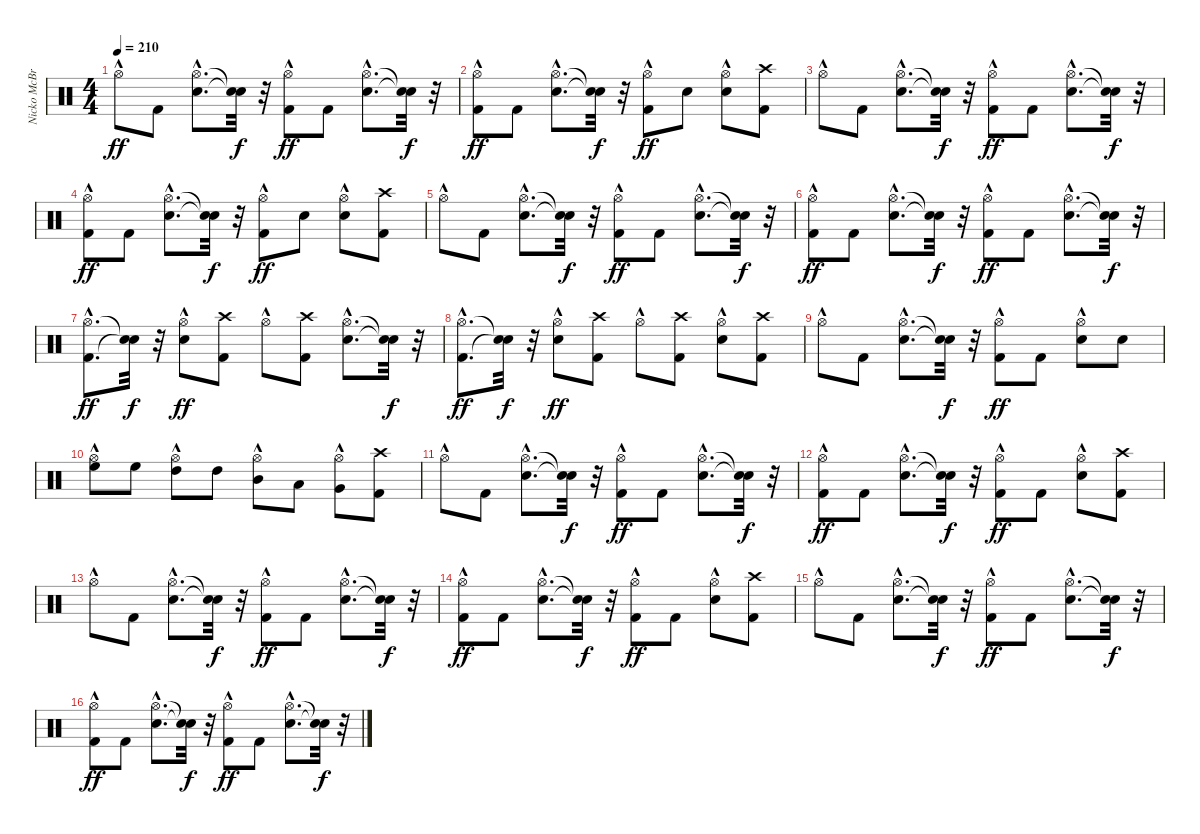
\track ("Nicko McBrain" "Nicko McBr") {instrument percussion}
\staff {score}
\articulation defaults
\ts (4 4)
\tempo 210
\clef neutral
\ks c "Hi-Hat (open)"{hac}.8{dy ff} "Kick (hit) 2".8
("Snare (hit) 2"{hac} "Hi-Hat (open)"{hac}).8{d} ("Snare (hit)"{t} "Snare (hit)"{t}).32{dy f} r.32 ("Kick (hit) 2" "Hi-Hat (open)"{hac}).8{dy ff} "Kick (hit) 2".8 ("Snare (hit) 2"{hac} "Hi-Hat (open)"{hac}).8{d} ("Snare (hit)"{t} "Snare (hit)"{t}).32{dy f} r.32 |
("Kick (hit) 2" "Hi-Hat (open)"{hac}).8{dy ff} "Kick (hit) 2".8 ("Snare (hit) 2"{hac} "Hi-Hat (open)"{hac}).8{d} ("Snare (hit)"{t} "Snare (hit)"{t}).32{dy f} r.32 ("Kick (hit) 2" "Hi-Hat (open)"{hac}).8{dy ff} "Snare (hit) 2".8 ("Snare (hit) 2" "Hi-Hat (open)"{hac}).8 ("Kick (hit) 2" "Crash high (hit)").8 |
"Hi-Hat (open)"{hac}.8 "Kick (hit) 2".8 ("Snare (hit) 2"{hac} "Hi-Hat (open)"{hac}).8{d} ("Snare (hit)"{t} "Snare (hit)"{t}).32{dy f} r.32 ("Kick (hit) 2" "Hi-Hat (open)"{hac}).8{dy ff} "Kick (hit) 2".8 ("Snare (hit) 2"{hac} "Hi-Hat (open)"{hac}).8{d} ("Snare (hit)"{t} "Snare (hit)"{t}).32{dy f} r.32 |
("Kick (hit) 2" "Hi-Hat (open)"{hac}).8{dy ff} "Kick (hit) 2".8 ("Snare (hit) 2"{hac} "Hi-Hat (open)"{hac}).8{d} ("Snare (hit)"{t} "Snare (hit)"{t}).32{dy f} r.32 ("Kick (hit) 2" "Hi-Hat (open)"{hac}).8{dy ff} "Snare (hit) 2".8 ("Snare (hit) 2" "Hi-Hat (open)"{hac}).8 ("Kick (hit) 2" "Crash high (hit)").8 |
"Hi-Hat (open)"{hac}.8 "Kick (hit) 2".8 ("Snare (hit) 2"{hac} "Hi-Hat (open)"{hac}).8{d} ("Snare (hit)"{t} "Snare (hit)"{t}).32{dy f} r.32 ("Kick (hit) 2" "Hi-Hat (open)"{hac}).8{dy ff} "Kick (hit) 2".8 ("Snare (hit) 2"{hac} "Hi-Hat (open)"{hac}).8{d} ("Snare (hit)"{t} "Snare (hit)"{t}).32{dy f} r.32 |
("Kick (hit) 2" "Hi-Hat (open)"{hac}).8{dy ff} "Kick (hit) 2".8 ("Snare (hit) 2"{hac} "Hi-Hat (open)"{hac}).8{d} ("Snare (hit)"{t} "Snare (hit)"{t}).32{dy f} r.32 ("Kick (hit) 2" "Hi-Hat (open)"{hac}).8{dy ff} "Kick (hit) 2".8 ("Snare (hit) 2"{hac} "Hi-Hat (open)"{hac}).8{d} ("Snare (hit)"{t} "Snare (hit)"{t}).32{dy f} r.32 |
("Kick (hit) 2"{hac} "Hi-Hat (open)"{hac}).8{d dy ff} ("Snare (hit)"{t} "Snare (hit)"{t}).32{dy f} r.32 ("Snare (hit) 2" "Hi-Hat (open)"{hac}).8{dy ff} ("Kick (hit) 2" "Crash high (hit)").8 "Hi-Hat (open)"{hac}.8 ("Kick (hit) 2" "Crash high (hit)").8 ("Snare (hit) 2"{hac} "Hi-Hat (open)"{hac}).8{d} ("Snare (hit)"{t} "Snare (hit)"{t}).32{dy f} r.32 |
("Kick (hit) 2"{hac} "Hi-Hat (open)"{hac}).8{d dy ff} ("Snare (hit)"{t} "Snare (hit)"{t}).32{dy f} r.32 ("Snare (hit) 2" "Hi-Hat (open)"{hac}).8{dy ff} ("Kick (hit) 2" "Crash high (hit)").8 "Hi-Hat (open)"{hac}.8 ("Kick (hit) 2" "Crash high (hit)").8 ("Snare (hit) 2" "Hi-Hat (open)"{hac}).8 ("Kick (hit) 2" "Crash high (hit)").8 |
"Hi-Hat (open)"{hac}.8 "Kick (hit) 2".8 ("Snare (hit) 2"{hac} "Hi-Hat (open)"{hac}).8{d} ("Snare (hit)"{t} "Snare (hit)"{t}).32{dy f} r.32 ("Kick (hit) 2" "Hi-Hat (open)"{hac}).8{dy ff} "Kick (hit) 2".8 ("Snare (hit) 2" "Hi-Hat (open)"{hac}).8 "Snare (hit) 2".8 |
("Hi-Hat (open)"{hac} "High Floor Tom (hit)").8 "High Floor Tom (hit)".8 ("Hi-Hat (open)"{hac} "High Tom (hit)").8 "High Tom (hit)".8 ("Hi-Hat (open)"{hac} "Mid Tom (hit)").8 "Low Tom (hit)".8 ("Very Low Tom (hit)" "Hi-Hat (open)"{hac}).8 ("Kick (hit) 2" "Crash high (hit)").8 |
"Hi-Hat (open)"{hac}.8 "Kick (hit) 2".8 ("Snare (hit) 2"{hac} "Hi-Hat (open)"{hac}).8{d} ("Snare (hit)"{t} "Snare (hit)"{t}).32{dy f} r.32 ("Kick (hit) 2" "Hi-Hat (open)"{hac}).8{dy ff} "Kick (hit) 2".8 ("Snare (hit) 2"{hac} "Hi-Hat (open)"{hac}).8{d} ("Snare (hit)"{t} "Snare (hit)"{t}).32{dy f} r.32 |
("Kick (hit) 2" "Hi-Hat (open)"{hac}).8{dy ff} "Kick (hit) 2".8 ("Snare (hit) 2"{hac} "Hi-Hat (open)"{hac}).8{d} ("Snare (hit)"{t} "Snare (hit)"{t}).32{dy f} r.32 ("Kick (hit) 2" "Hi-Hat (open)"{hac}).8{dy ff} "Kick (hit) 2".8 ("Snare (hit) 2" "Hi-Hat (open)"{hac}).8 ("Kick (hit) 2" "Crash high (hit)").8 |
"Hi-Hat (open)"{hac}.8 "Kick (hit) 2".8 ("Snare (hit) 2"{hac} "Hi-Hat (open)"{hac}).8{d} ("Snare (hit)"{t} "Snare (hit)"{t}).32{dy f} r.32 ("Kick (hit) 2" "Hi-Hat (open)"{hac}).8{dy ff} "Kick (hit) 2".8 ("Snare (hit) 2"{hac} "Hi-Hat (open)"{hac}).8{d} ("Snare (hit)"{t} "Snare (hit)"{t}).32{dy f} r.32 |
("Kick (hit) 2" "Hi-Hat (open)"{hac}).8{dy ff} "Kick (hit) 2".8 ("Snare (hit) 2"{hac} "Hi-Hat (open)"{hac}).8{d} ("Snare (hit)"{t} "Snare (hit)"{t}).32{dy f} r.32 ("Kick (hit) 2" "Hi-Hat (open)"{hac}).8{dy ff} "Kick (hit) 2".8 ("Snare (hit) 2" "Hi-Hat (open)"{hac}).8 ("Kick (hit) 2" "Crash high (hit)").8 |
"Hi-Hat (open)"{hac}.8 "Kick (hit) 2".8 ("Snare (hit) 2"{hac} "Hi-Hat (open)"{hac}).8{d} ("Snare (hit)"{t} "Snare (hit)"{t}).32{dy f} r.32 ("Kick (hit) 2" "Hi-Hat (open)"{hac}).8{dy ff} "Kick (hit) 2".8 ("Snare (hit) 2"{hac} "Hi-Hat (open)"{hac}).8{d} ("Snare (hit)"{t} "Snare (hit)"{t}).32{dy f} r.32 |
("Kick (hit) 2" "Hi-Hat (open)"{hac}).8{dy ff} "Kick (hit) 2".8 ("Snare (hit) 2"{hac} "Hi-Hat (open)"{hac}).8{d} ("Snare (hit)"{t} "Snare (hit)"{t}).32{dy f} r.32 ("Kick (hit) 2" "Hi-Hat (open)"{hac}).8{dy ff} "Kick (hit) 2".8 ("Snare (hit) 2"{hac} "Hi-Hat (open)"{hac}).8{d} ("Snare (hit)"{t} "Snare (hit)"{t}).32{dy f} r.32
